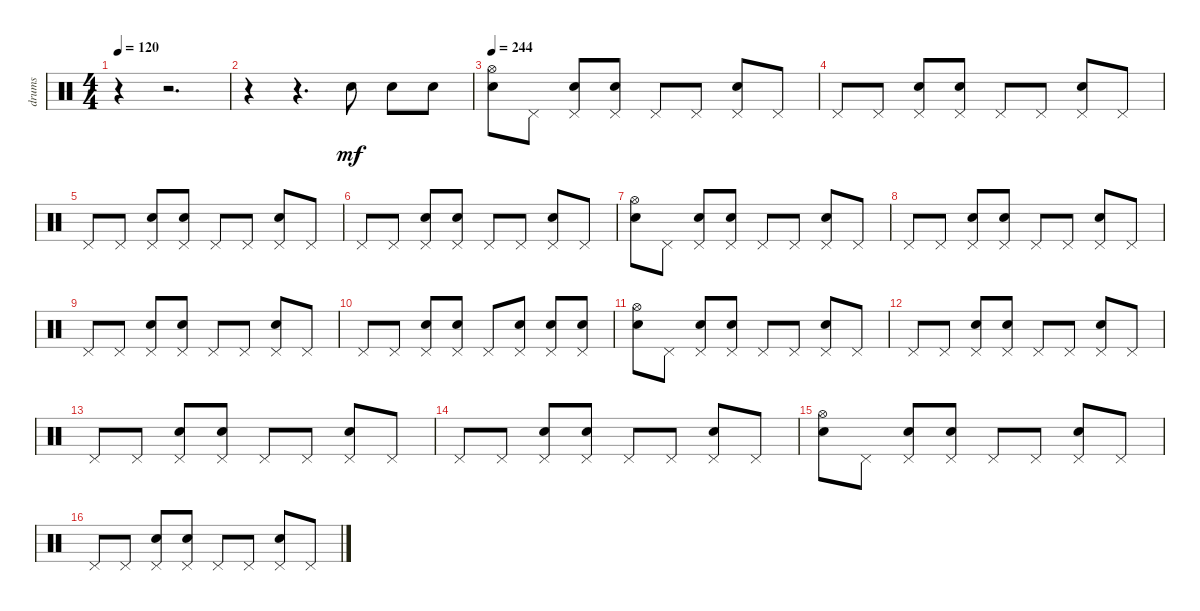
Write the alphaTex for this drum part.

\track ("drums" "drums") {instrument percussion}
\staff {score}
\articulation defaults
\ts (4 4)
\tempo 120
\clef neutral
\ks c
r.4{dy mf} r.2{d} |
r.4 r.4{d} "Snare (hit) 2".8 "Snare (hit) 2".8 "Snare (hit) 2".8 |
\tempo 244
("Hi-Hat (open)" "Snare (hit) 2").8 "Pedal Hi-Hat (hit)".8 ("Pedal Hi-Hat (hit)" "Snare (hit) 2").8 ("Pedal Hi-Hat (hit)" "Snare (hit) 2").8 "Pedal Hi-Hat (hit)".8 "Pedal Hi-Hat (hit)".8 ("Pedal Hi-Hat (hit)" "Snare (hit) 2").8 "Pedal Hi-Hat (hit)".8 |
"Pedal Hi-Hat (hit)".8 "Pedal Hi-Hat (hit)".8 ("Pedal Hi-Hat (hit)" "Snare (hit) 2").8 ("Pedal Hi-Hat (hit)" "Snare (hit) 2").8 "Pedal Hi-Hat (hit)".8 "Pedal Hi-Hat (hit)".8 ("Pedal Hi-Hat (hit)" "Snare (hit) 2").8 "Pedal Hi-Hat (hit)".8 |
"Pedal Hi-Hat (hit)".8 "Pedal Hi-Hat (hit)".8 ("Pedal Hi-Hat (hit)" "Snare (hit) 2").8 ("Pedal Hi-Hat (hit)" "Snare (hit) 2").8 "Pedal Hi-Hat (hit)".8 "Pedal Hi-Hat (hit)".8 ("Pedal Hi-Hat (hit)" "Snare (hit) 2").8 "Pedal Hi-Hat (hit)".8 |
"Pedal Hi-Hat (hit)".8 "Pedal Hi-Hat (hit)".8 ("Pedal Hi-Hat (hit)" "Snare (hit) 2").8 ("Pedal Hi-Hat (hit)" "Snare (hit) 2").8 "Pedal Hi-Hat (hit)".8 "Pedal Hi-Hat (hit)".8 ("Pedal Hi-Hat (hit)" "Snare (hit) 2").8 "Pedal Hi-Hat (hit)".8 |
("Hi-Hat (open)" "Snare (hit) 2").8 "Pedal Hi-Hat (hit)".8 ("Pedal Hi-Hat (hit)" "Snare (hit) 2").8 ("Pedal Hi-Hat (hit)" "Snare (hit) 2").8 "Pedal Hi-Hat (hit)".8 "Pedal Hi-Hat (hit)".8 ("Pedal Hi-Hat (hit)" "Snare (hit) 2").8 "Pedal Hi-Hat (hit)".8 |
"Pedal Hi-Hat (hit)".8 "Pedal Hi-Hat (hit)".8 ("Pedal Hi-Hat (hit)" "Snare (hit) 2").8 ("Pedal Hi-Hat (hit)" "Snare (hit) 2").8 "Pedal Hi-Hat (hit)".8 "Pedal Hi-Hat (hit)".8 ("Pedal Hi-Hat (hit)" "Snare (hit) 2").8 "Pedal Hi-Hat (hit)".8 |
"Pedal Hi-Hat (hit)".8 "Pedal Hi-Hat (hit)".8 ("Pedal Hi-Hat (hit)" "Snare (hit) 2").8 ("Pedal Hi-Hat (hit)" "Snare (hit) 2").8 "Pedal Hi-Hat (hit)".8 "Pedal Hi-Hat (hit)".8 ("Pedal Hi-Hat (hit)" "Snare (hit) 2").8 "Pedal Hi-Hat (hit)".8 |
"Pedal Hi-Hat (hit)".8 "Pedal Hi-Hat (hit)".8 ("Pedal Hi-Hat (hit)" "Snare (hit) 2").8 ("Pedal Hi-Hat (hit)" "Snare (hit) 2").8 "Pedal Hi-Hat (hit)".8 ("Pedal Hi-Hat (hit)" "Snare (hit) 2").8 ("Pedal Hi-Hat (hit)" "Snare (hit) 2").8 ("Pedal Hi-Hat (hit)" "Snare (hit) 2").8 |
("Hi-Hat (open)" "Snare (hit) 2").8 "Pedal Hi-Hat (hit)".8 ("Pedal Hi-Hat (hit)" "Snare (hit) 2").8 ("Pedal Hi-Hat (hit)" "Snare (hit) 2").8 "Pedal Hi-Hat (hit)".8 "Pedal Hi-Hat (hit)".8 ("Pedal Hi-Hat (hit)" "Snare (hit) 2").8 "Pedal Hi-Hat (hit)".8 |
"Pedal Hi-Hat (hit)".8 "Pedal Hi-Hat (hit)".8 ("Pedal Hi-Hat (hit)" "Snare (hit) 2").8 ("Pedal Hi-Hat (hit)" "Snare (hit) 2").8 "Pedal Hi-Hat (hit)".8 "Pedal Hi-Hat (hit)".8 ("Pedal Hi-Hat (hit)" "Snare (hit) 2").8 "Pedal Hi-Hat (hit)".8 |
"Pedal Hi-Hat (hit)".8 "Pedal Hi-Hat (hit)".8 ("Pedal Hi-Hat (hit)" "Snare (hit) 2").8 ("Pedal Hi-Hat (hit)" "Snare (hit) 2").8 "Pedal Hi-Hat (hit)".8 "Pedal Hi-Hat (hit)".8 ("Pedal Hi-Hat (hit)" "Snare (hit) 2").8 "Pedal Hi-Hat (hit)".8 |
"Pedal Hi-Hat (hit)".8 "Pedal Hi-Hat (hit)".8 ("Pedal Hi-Hat (hit)" "Snare (hit) 2").8 ("Pedal Hi-Hat (hit)" "Snare (hit) 2").8 "Pedal Hi-Hat (hit)".8 "Pedal Hi-Hat (hit)".8 ("Pedal Hi-Hat (hit)" "Snare (hit) 2").8 "Pedal Hi-Hat (hit)".8 |
("Hi-Hat (open)" "Snare (hit) 2").8 "Pedal Hi-Hat (hit)".8 ("Pedal Hi-Hat (hit)" "Snare (hit) 2").8 ("Pedal Hi-Hat (hit)" "Snare (hit) 2").8 "Pedal Hi-Hat (hit)".8 "Pedal Hi-Hat (hit)".8 ("Pedal Hi-Hat (hit)" "Snare (hit) 2").8 "Pedal Hi-Hat (hit)".8 |
"Pedal Hi-Hat (hit)".8 "Pedal Hi-Hat (hit)".8 ("Pedal Hi-Hat (hit)" "Snare (hit) 2").8 ("Pedal Hi-Hat (hit)" "Snare (hit) 2").8 "Pedal Hi-Hat (hit)".8 "Pedal Hi-Hat (hit)".8 ("Pedal Hi-Hat (hit)" "Snare (hit) 2").8 "Pedal Hi-Hat (hit)".8
